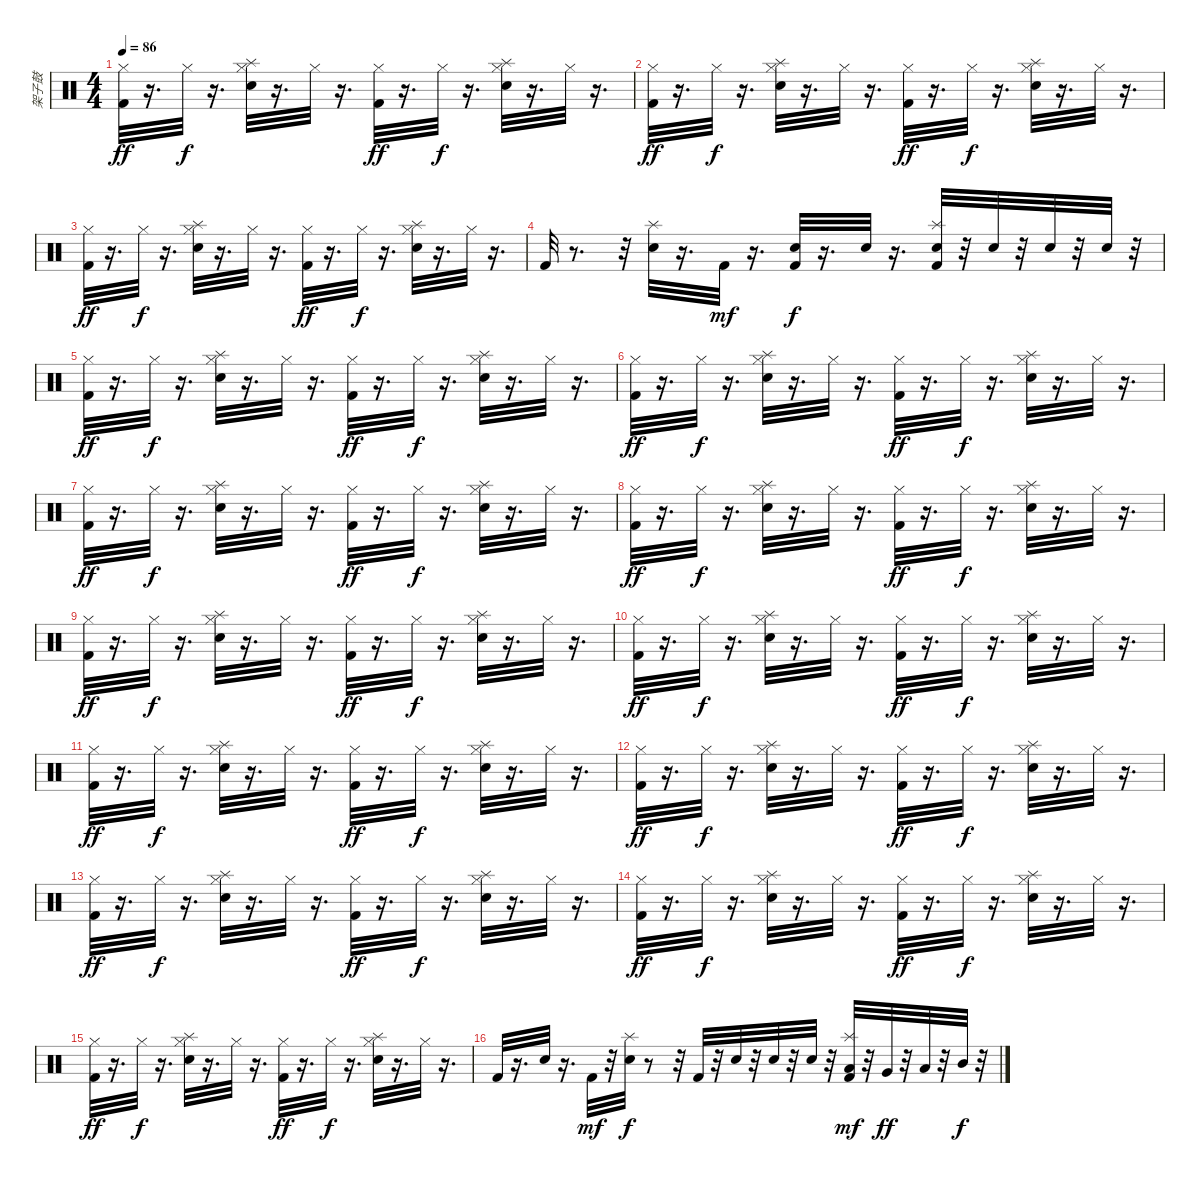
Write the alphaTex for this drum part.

\track ("架子鼓" "架子鼓") {instrument percussion}
\staff {score}
\articulation defaults
\ts (4 4)
\tempo 86
\clef neutral
\ks c
("Hi-Hat (closed)" "Kick (hit) 2").32{dy ff} r.16{d} "Hi-Hat (closed)".32{dy f} r.16{d} ("Splash (hit)" "Hi-Hat (closed)" "Electric Snare (hit)").32 r.16{d} "Hi-Hat (closed)".32 r.16{d} ("Hi-Hat (closed)" "Kick (hit) 2").32{dy ff} r.16{d} "Hi-Hat (closed)".32{dy f} r.16{d} ("Splash (hit)" "Hi-Hat (closed)" "Electric Snare (hit)").32 r.16{d} "Hi-Hat (closed)".32 r.16{d} |
("Hi-Hat (closed)" "Kick (hit) 2").32{dy ff} r.16{d} "Hi-Hat (closed)".32{dy f} r.16{d} ("Splash (hit)" "Hi-Hat (closed)" "Electric Snare (hit)").32 r.16{d} "Hi-Hat (closed)".32 r.16{d} ("Hi-Hat (closed)" "Kick (hit) 2").32{dy ff} r.16{d} "Hi-Hat (closed)".32{dy f} r.16{d} ("Splash (hit)" "Hi-Hat (closed)" "Electric Snare (hit)").32 r.16{d} "Hi-Hat (closed)".32 r.16{d} |
("Hi-Hat (closed)" "Kick (hit) 2").32{dy ff} r.16{d} "Hi-Hat (closed)".32{dy f} r.16{d} ("Splash (hit)" "Hi-Hat (closed)" "Electric Snare (hit)").32 r.16{d} "Hi-Hat (closed)".32 r.16{d} ("Hi-Hat (closed)" "Kick (hit) 2").32{dy ff} r.16{d} "Hi-Hat (closed)".32{dy f} r.16{d} ("Splash (hit)" "Hi-Hat (closed)" "Electric Snare (hit)").32 r.16{d} "Hi-Hat (closed)".32 r.16{d} |
"Kick (hit) 2".32 r.8{d} r.32 ("Splash (hit)" "Electric Snare (hit)").32 r.16{d} "Kick (hit) 2".32{dy mf} r.16{d} ("Electric Snare (hit)" "Kick (hit) 2").32{dy f} r.16{d} "Electric Snare (hit)".32 r.16{d} ("Splash (hit)" "Electric Snare (hit)" "Kick (hit) 2").32 r.32 "Electric Snare (hit)".32 r.32 "Electric Snare (hit)".32 r.32 "Electric Snare (hit)".32 r.32 |
("Hi-Hat (closed)" "Kick (hit) 2").32{dy ff} r.16{d} "Hi-Hat (closed)".32{dy f} r.16{d} ("Splash (hit)" "Hi-Hat (closed)" "Electric Snare (hit)").32 r.16{d} "Hi-Hat (closed)".32 r.16{d} ("Hi-Hat (closed)" "Kick (hit) 2").32{dy ff} r.16{d} "Hi-Hat (closed)".32{dy f} r.16{d} ("Splash (hit)" "Hi-Hat (closed)" "Electric Snare (hit)").32 r.16{d} "Hi-Hat (closed)".32 r.16{d} |
("Hi-Hat (closed)" "Kick (hit) 2").32{dy ff} r.16{d} "Hi-Hat (closed)".32{dy f} r.16{d} ("Splash (hit)" "Hi-Hat (closed)" "Electric Snare (hit)").32 r.16{d} "Hi-Hat (closed)".32 r.16{d} ("Hi-Hat (closed)" "Kick (hit) 2").32{dy ff} r.16{d} "Hi-Hat (closed)".32{dy f} r.16{d} ("Splash (hit)" "Hi-Hat (closed)" "Electric Snare (hit)").32 r.16{d} "Hi-Hat (closed)".32 r.16{d} |
("Hi-Hat (closed)" "Kick (hit) 2").32{dy ff} r.16{d} "Hi-Hat (closed)".32{dy f} r.16{d} ("Splash (hit)" "Hi-Hat (closed)" "Electric Snare (hit)").32 r.16{d} "Hi-Hat (closed)".32 r.16{d} ("Hi-Hat (closed)" "Kick (hit) 2").32{dy ff} r.16{d} "Hi-Hat (closed)".32{dy f} r.16{d} ("Splash (hit)" "Hi-Hat (closed)" "Electric Snare (hit)").32 r.16{d} "Hi-Hat (closed)".32 r.16{d} |
("Hi-Hat (closed)" "Kick (hit) 2").32{dy ff} r.16{d} "Hi-Hat (closed)".32{dy f} r.16{d} ("Splash (hit)" "Hi-Hat (closed)" "Electric Snare (hit)").32 r.16{d} "Hi-Hat (closed)".32 r.16{d} ("Hi-Hat (closed)" "Kick (hit) 2").32{dy ff} r.16{d} "Hi-Hat (closed)".32{dy f} r.16{d} ("Splash (hit)" "Hi-Hat (closed)" "Electric Snare (hit)").32 r.16{d} "Hi-Hat (closed)".32 r.16{d} |
("Hi-Hat (closed)" "Kick (hit) 2").32{dy ff} r.16{d} "Hi-Hat (closed)".32{dy f} r.16{d} ("Splash (hit)" "Hi-Hat (closed)" "Electric Snare (hit)").32 r.16{d} "Hi-Hat (closed)".32 r.16{d} ("Hi-Hat (closed)" "Kick (hit) 2").32{dy ff} r.16{d} "Hi-Hat (closed)".32{dy f} r.16{d} ("Splash (hit)" "Hi-Hat (closed)" "Electric Snare (hit)").32 r.16{d} "Hi-Hat (closed)".32 r.16{d} |
("Hi-Hat (closed)" "Kick (hit) 2").32{dy ff} r.16{d} "Hi-Hat (closed)".32{dy f} r.16{d} ("Splash (hit)" "Hi-Hat (closed)" "Electric Snare (hit)").32 r.16{d} "Hi-Hat (closed)".32 r.16{d} ("Hi-Hat (closed)" "Kick (hit) 2").32{dy ff} r.16{d} "Hi-Hat (closed)".32{dy f} r.16{d} ("Splash (hit)" "Hi-Hat (closed)" "Electric Snare (hit)").32 r.16{d} "Hi-Hat (closed)".32 r.16{d} |
("Hi-Hat (closed)" "Kick (hit) 2").32{dy ff} r.16{d} "Hi-Hat (closed)".32{dy f} r.16{d} ("Splash (hit)" "Hi-Hat (closed)" "Electric Snare (hit)").32 r.16{d} "Hi-Hat (closed)".32 r.16{d} ("Hi-Hat (closed)" "Kick (hit) 2").32{dy ff} r.16{d} "Hi-Hat (closed)".32{dy f} r.16{d} ("Splash (hit)" "Hi-Hat (closed)" "Electric Snare (hit)").32 r.16{d} "Hi-Hat (closed)".32 r.16{d} |
("Hi-Hat (closed)" "Kick (hit) 2").32{dy ff} r.16{d} "Hi-Hat (closed)".32{dy f} r.16{d} ("Splash (hit)" "Hi-Hat (closed)" "Electric Snare (hit)").32 r.16{d} "Hi-Hat (closed)".32 r.16{d} ("Hi-Hat (closed)" "Kick (hit) 2").32{dy ff} r.16{d} "Hi-Hat (closed)".32{dy f} r.16{d} ("Splash (hit)" "Hi-Hat (closed)" "Electric Snare (hit)").32 r.16{d} "Hi-Hat (closed)".32 r.16{d} |
("Hi-Hat (closed)" "Kick (hit) 2").32{dy ff} r.16{d} "Hi-Hat (closed)".32{dy f} r.16{d} ("Splash (hit)" "Hi-Hat (closed)" "Electric Snare (hit)").32 r.16{d} "Hi-Hat (closed)".32 r.16{d} ("Hi-Hat (closed)" "Kick (hit) 2").32{dy ff} r.16{d} "Hi-Hat (closed)".32{dy f} r.16{d} ("Splash (hit)" "Hi-Hat (closed)" "Electric Snare (hit)").32 r.16{d} "Hi-Hat (closed)".32 r.16{d} |
("Hi-Hat (closed)" "Kick (hit) 2").32{dy ff} r.16{d} "Hi-Hat (closed)".32{dy f} r.16{d} ("Splash (hit)" "Hi-Hat (closed)" "Electric Snare (hit)").32 r.16{d} "Hi-Hat (closed)".32 r.16{d} ("Hi-Hat (closed)" "Kick (hit) 2").32{dy ff} r.16{d} "Hi-Hat (closed)".32{dy f} r.16{d} ("Splash (hit)" "Hi-Hat (closed)" "Electric Snare (hit)").32 r.16{d} "Hi-Hat (closed)".32 r.16{d} |
("Hi-Hat (closed)" "Kick (hit) 2").32{dy ff} r.16{d} "Hi-Hat (closed)".32{dy f} r.16{d} ("Splash (hit)" "Hi-Hat (closed)" "Electric Snare (hit)").32 r.16{d} "Hi-Hat (closed)".32 r.16{d} ("Hi-Hat (closed)" "Kick (hit) 2").32{dy ff} r.16{d} "Hi-Hat (closed)".32{dy f} r.16{d} ("Splash (hit)" "Hi-Hat (closed)" "Electric Snare (hit)").32 r.16{d} "Hi-Hat (closed)".32 r.16{d} |
"Kick (hit) 2".32 r.16{d} "Electric Snare (hit)".32 r.16{d} "Kick (hit) 2".32{dy mf} r.32 ("Splash (hit)" "Electric Snare (hit)").32{dy f} r.8 r.32 "Kick (hit) 2".32 r.32 "Electric Snare (hit)".32 r.32 "Electric Snare (hit)".32 r.32 "Electric Snare (hit)".32 r.32 ("Splash (hit)" "Low Floor Tom (hit)" "Kick (hit) 2").32{dy mf} r.32 "Very Low Tom (hit)".32{dy ff} r.32 "Low Tom (hit)".32 r.32 "Mid Tom (hit)".32{dy f} r.32
